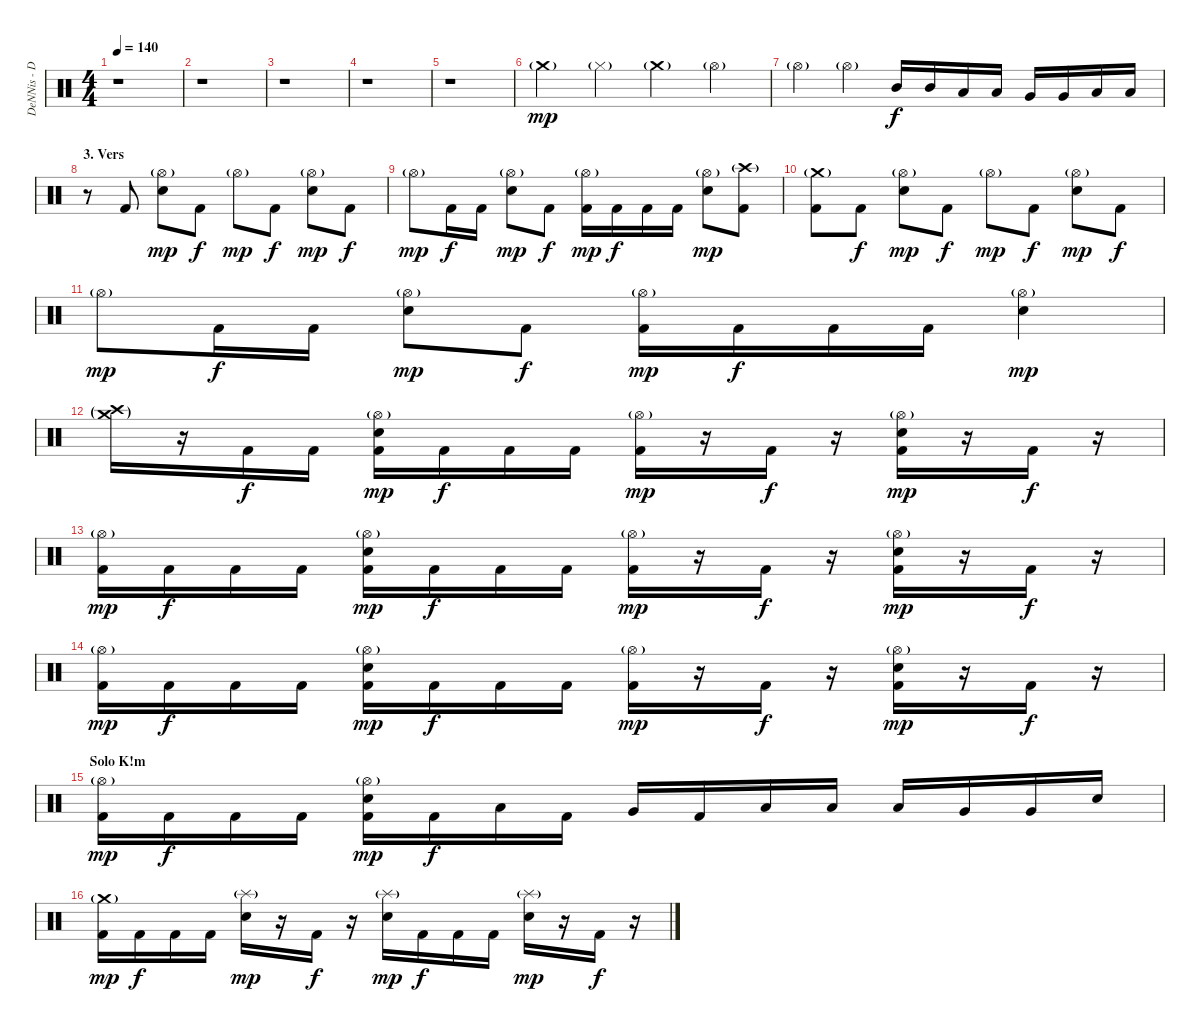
\track ("DeNNis - Drums" "DeNNis - D") {instrument percussion}
\staff {score}
\articulation defaults
\ts (4 4)
\tempo 140
\clef neutral
\ks c
r.1{dy f} |
r.1 |
r.1 |
r.1 |
r.1 |
"Crash medium (hit)"{g}.4{dy mp} "Hi-Hat (closed)"{g}.4 "Crash medium (hit)"{g}.4 "Hi-Hat (open)"{g}.4 |
"Hi-Hat (open)"{g}.4 "Hi-Hat (open)"{g}.4 "Mid Tom (hit)".16{dy f} "Mid Tom (hit)".16 "Low Tom (hit)".16 "Low Tom (hit)".16 "Very Low Tom (hit)".16 "Very Low Tom (hit)".16 "Low Floor Tom (hit)".16 "Low Floor Tom (hit)".16 |
\section ("" "3. Vers")
r.8 "Kick (hit) 2".8 ("Hi-Hat (open)"{g} "Electric Snare (hit)").8{dy mp} "Kick (hit) 2".8{dy f} "Hi-Hat (open)"{g}.8{dy mp} "Kick (hit) 2".8{dy f} ("Hi-Hat (open)"{g} "Electric Snare (hit)").8{dy mp} "Kick (hit) 2".8{dy f} |
"Hi-Hat (open)"{g}.8{dy mp} "Kick (hit) 2".16{dy f} "Kick (hit) 2".16 ("Hi-Hat (open)"{g} "Electric Snare (hit)").8{dy mp} "Kick (hit) 2".8{dy f} ("Hi-Hat (open)"{g} "Kick (hit) 2").16{dy mp} "Kick (hit) 2".16{dy f} "Kick (hit) 2".16 "Kick (hit) 2".16 ("Hi-Hat (open)"{g} "Electric Snare (hit)").8{dy mp} ("Crash high (hit)"{g} "Kick (hit) 2").8 |
("Crash medium (hit)"{g} "Kick (hit) 2").8 "Kick (hit) 2".8{dy f} ("Hi-Hat (open)"{g} "Electric Snare (hit)").8{dy mp} "Kick (hit) 2".8{dy f} "Hi-Hat (open)"{g}.8{dy mp} "Kick (hit) 2".8{dy f} ("Hi-Hat (open)"{g} "Electric Snare (hit)").8{dy mp} "Kick (hit) 2".8{dy f} |
"Hi-Hat (open)"{g}.8{dy mp} "Kick (hit) 2".16{dy f} "Kick (hit) 2".16 ("Hi-Hat (open)"{g} "Electric Snare (hit)").8{dy mp} "Kick (hit) 2".8{dy f} ("Hi-Hat (open)"{g} "Kick (hit) 2").16{dy mp} "Kick (hit) 2".16{dy f} "Kick (hit) 2".16 "Kick (hit) 2".16 ("Hi-Hat (open)"{g} "Electric Snare (hit)").4{dy mp} |
("Crash high (hit)"{g} "Crash medium (hit)"{g}).16 r.16 "Kick (hit) 2".16{dy f} "Kick (hit) 2".16 ("Hi-Hat (open)"{g} "Electric Snare (hit)" "Kick (hit) 2").16{dy mp} "Kick (hit) 2".16{dy f} "Kick (hit) 2".16 "Kick (hit) 2".16 ("Hi-Hat (open)"{g} "Kick (hit) 2").16{dy mp} r.16 "Kick (hit) 2".16{dy f} r.16 ("Hi-Hat (open)"{g} "Electric Snare (hit)" "Kick (hit) 2").16{dy mp} r.16 "Kick (hit) 2".16{dy f} r.16 |
("Hi-Hat (open)"{g} "Kick (hit) 2").16{dy mp} "Kick (hit) 2".16{dy f} "Kick (hit) 2".16 "Kick (hit) 2".16 ("Hi-Hat (open)"{g} "Electric Snare (hit)" "Kick (hit) 2").16{dy mp} "Kick (hit) 2".16{dy f} "Kick (hit) 2".16 "Kick (hit) 2".16 ("Hi-Hat (open)"{g} "Kick (hit) 2").16{dy mp} r.16 "Kick (hit) 2".16{dy f} r.16 ("Hi-Hat (open)"{g} "Electric Snare (hit)" "Kick (hit) 2").16{dy mp} r.16 "Kick (hit) 2".16{dy f} r.16 |
("Hi-Hat (open)"{g} "Kick (hit) 2").16{dy mp} "Kick (hit) 2".16{dy f} "Kick (hit) 2".16 "Kick (hit) 2".16 ("Hi-Hat (open)"{g} "Electric Snare (hit)" "Kick (hit) 2").16{dy mp} "Kick (hit) 2".16{dy f} "Kick (hit) 2".16 "Kick (hit) 2".16 ("Hi-Hat (open)"{g} "Kick (hit) 2").16{dy mp} r.16 "Kick (hit) 2".16{dy f} r.16 ("Hi-Hat (open)"{g} "Electric Snare (hit)" "Kick (hit) 2").16{dy mp} r.16 "Kick (hit) 2".16{dy f} r.16 |
\section ("" "Solo K!m")
("Hi-Hat (open)"{g} "Kick (hit) 2").16{dy mp} "Kick (hit) 2".16{dy f} "Kick (hit) 2".16 "Kick (hit) 2".16 ("Hi-Hat (open)"{g} "Electric Snare (hit)" "Kick (hit) 2").16{dy mp} "Kick (hit) 2".16{dy f} "Low Floor Tom (hit)".16 "Kick (hit) 2".16 "Very Low Tom (hit)".16 "Kick (hit) 2".16 "Low Tom (hit)".16 "Low Tom (hit)".16 "Low Tom (hit)".16 "Very Low Tom (hit)".16 "Very Low Tom (hit)".16 "Electric Snare (hit)".16 |
("Crash medium (hit)"{g} "Kick (hit) 2").16{dy mp} "Kick (hit) 2".16{dy f} "Kick (hit) 2".16 "Kick (hit) 2".16 ("Splash (hit)"{g} "Electric Snare (hit)").16{dy mp} r.16 "Kick (hit) 2".16{dy f} r.16 ("Splash (hit)"{g} "Electric Snare (hit)").16{dy mp} "Kick (hit) 2".16{dy f} "Kick (hit) 2".16 "Kick (hit) 2".16 ("Splash (hit)"{g} "Electric Snare (hit)").16{dy mp} r.16 "Kick (hit) 2".16{dy f} r.16
